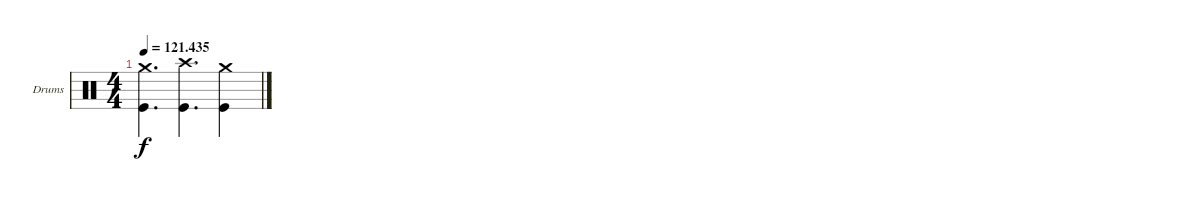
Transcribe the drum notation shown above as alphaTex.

\defaultSystemsLayout 4
\bracketExtendMode groupsimilarinstruments
\firstSystemTrackNameOrientation horizontal
\otherSystemsTrackNameOrientation horizontal
\track ("Drumkit" "Drums") {instrument percussion}
\staff {score}
\articulation defaults
\ts (4 4)
\tempo
121.435
\accidentals auto
\clef neutral
\ottava regular
\simile none
\ks c
("Crash medium (hit)" "Kick (hit)").4{d dy f} ("Kick (hit)" "Crash high (hit)").4{d} ("Kick (hit)" "Crash medium (hit)").4
